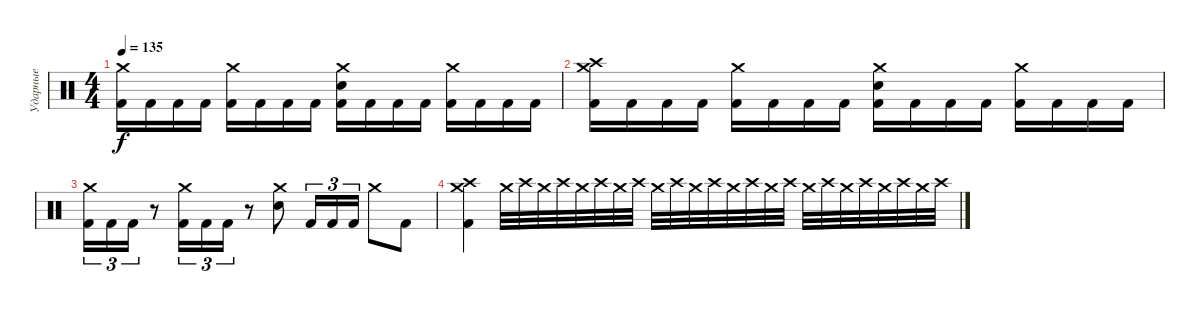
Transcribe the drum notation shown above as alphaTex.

\track ("Ударные" "Ударные") {instrument percussion}
\staff {score}
\articulation defaults
\ts (4 4)
\tempo 135
\clef neutral
\ks c
("Crash medium (hit)" "Kick (hit) 2").16{dy f} "Kick (hit) 2".16 "Kick (hit) 2".16 "Kick (hit) 2".16 ("Crash medium (hit)" "Kick (hit) 2").16 "Kick (hit) 2".16 "Kick (hit) 2".16 "Kick (hit) 2".16 ("Crash medium (hit)" "Electric Snare (hit)" "Kick (hit) 2").16 "Kick (hit) 2".16 "Kick (hit) 2".16 "Kick (hit) 2".16 ("Crash medium (hit)" "Kick (hit) 2").16 "Kick (hit) 2".16 "Kick (hit) 2".16 "Kick (hit) 2".16 |
("Crash medium (hit)" "Crash high (hit)" "Kick (hit) 2").16 "Kick (hit) 2".16 "Kick (hit) 2".16 "Kick (hit) 2".16 ("Crash medium (hit)" "Kick (hit) 2").16 "Kick (hit) 2".16 "Kick (hit) 2".16 "Kick (hit) 2".16 ("Crash medium (hit)" "Electric Snare (hit)" "Kick (hit) 2").16 "Kick (hit) 2".16 "Kick (hit) 2".16 "Kick (hit) 2".16 ("Crash medium (hit)" "Kick (hit) 2").16 "Kick (hit) 2".16 "Kick (hit) 2".16 "Kick (hit) 2".16 |
("Crash medium (hit)" "Kick (hit) 2").16{tu (3 2)} "Kick (hit) 2".16{tu (3 2)} "Kick (hit) 2".16{tu (3 2)} r.8 ("Crash medium (hit)" "Kick (hit) 2").16{tu (3 2)} "Kick (hit) 2".16{tu (3 2)} "Kick (hit) 2".16{tu (3 2)} r.8 ("Crash medium (hit)" "Electric Snare (hit)").8 "Kick (hit) 2".16{tu (3 2)} "Kick (hit) 2".16{tu (3 2)} "Kick (hit) 2".16{tu (3 2)} "Crash medium (hit)".8 "Kick (hit) 2".8 |
("Crash medium (hit)" "Crash high (hit)" "Kick (hit) 2").4 "Crash medium (hit)".32 "Crash high (hit)".32 "Crash medium (hit)".32 "Crash high (hit)".32 "Crash medium (hit)".32 "Crash high (hit)".32 "Crash medium (hit)".32 "Crash high (hit)".32 "Crash medium (hit)".32 "Crash high (hit)".32 "Crash medium (hit)".32 "Crash high (hit)".32 "Crash medium (hit)".32 "Crash high (hit)".32 "Crash medium (hit)".32 "Crash high (hit)".32 "Crash medium (hit)".32 "Crash high (hit)".32 "Crash medium (hit)".32 "Crash high (hit)".32 "Crash medium (hit)".32 "Crash high (hit)".32 "Crash medium (hit)".32 "Crash high (hit)".32
